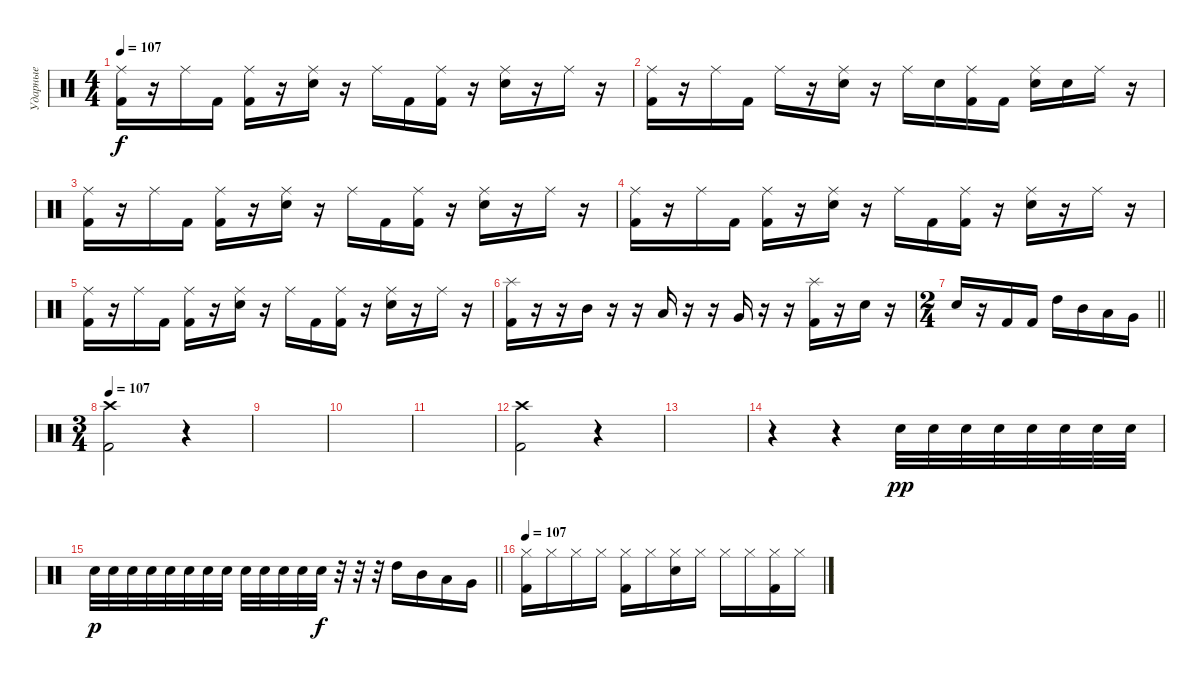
\track ("Ударные" "Ударные") {instrument percussion}
\staff {score}
\articulation defaults
\ts (4 4)
\tempo 107
\clef neutral
\ks c
("Kick (hit) 2" "Ride (middle)").16{dy f} r.16 "Ride (middle)".16 "Kick (hit) 2".16 ("Kick (hit) 2" "Ride (middle)").16 r.16 ("Electric Snare (hit)" "Ride (middle)").16 r.16 "Ride (middle)".16 "Kick (hit) 2".16 ("Kick (hit) 2" "Ride (middle)").16 r.16 ("Electric Snare (hit)" "Ride (middle)").16 r.16 "Ride (middle)".16 r.16 |
("Kick (hit) 2" "Ride (middle)").16 r.16 "Ride (middle)".16 "Kick (hit) 2".16 "Ride (middle)".16 r.16 ("Electric Snare (hit)" "Ride (middle)").16 r.16 "Ride (middle)".16 "Electric Snare (hit)".16 ("Kick (hit) 2" "Ride (middle)").16 "Kick (hit) 2".16 ("Electric Snare (hit)" "Ride (middle)").16 "Electric Snare (hit)".16 "Ride (middle)".16 r.16 |
("Kick (hit) 2" "Ride (middle)").16 r.16 "Ride (middle)".16 "Kick (hit) 2".16 ("Kick (hit) 2" "Ride (middle)").16 r.16 ("Electric Snare (hit)" "Ride (middle)").16 r.16 "Ride (middle)".16 "Kick (hit) 2".16 ("Kick (hit) 2" "Ride (middle)").16 r.16 ("Electric Snare (hit)" "Ride (middle)").16 r.16 "Ride (middle)".16 r.16 |
("Kick (hit) 2" "Ride (middle)").16 r.16 "Ride (middle)".16 "Kick (hit) 2".16 ("Kick (hit) 2" "Ride (middle)").16 r.16 ("Electric Snare (hit)" "Ride (middle)").16 r.16 "Ride (middle)".16 "Kick (hit) 2".16 ("Kick (hit) 2" "Ride (middle)").16 r.16 ("Electric Snare (hit)" "Ride (middle)").16 r.16 "Ride (middle)".16 r.16 |
("Kick (hit) 2" "Ride (middle)").16 r.16 "Ride (middle)".16 "Kick (hit) 2".16 ("Kick (hit) 2" "Ride (middle)").16 r.16 ("Electric Snare (hit)" "Ride (middle)").16 r.16 "Ride (middle)".16 "Kick (hit) 2".16 ("Kick (hit) 2" "Ride (middle)").16 r.16 ("Electric Snare (hit)" "Ride (middle)").16 r.16 "Ride (middle)".16 r.16 |
("Kick (hit) 2" "Splash (hit)").16 r.16 r.16 "Mid Tom (hit)".16 r.16 r.16 "Low Tom (hit)".16 r.16 r.16 "Very Low Tom (hit)".16 r.16 r.16 ("Kick (hit) 2" "Splash (hit)").16 r.16 "Electric Snare (hit)".16 r.16 |
\ts (2 4)
\barLineRight lightlight "Electric Snare (hit)".16
r.16 "Kick (hit) 2".16 "Kick (hit) 2".16 "High Tom (hit)".16 "Mid Tom (hit)".16 "Low Tom (hit)".16 "Very Low Tom (hit)".16 |
\ts (3 4)
\section ("" "")
\tempo 107
("Kick (hit) 2" "Crash high (hit)").2 r.4 |
|
|
|
("Kick (hit) 2" "Crash high (hit)").2 r.4 |
|
r.4 r.4 "Electric Snare (hit)".32{dy pp} "Electric Snare (hit)".32 "Electric Snare (hit)".32 "Electric Snare (hit)".32 "Electric Snare (hit)".32 "Electric Snare (hit)".32 "Electric Snare (hit)".32 "Electric Snare (hit)".32 |
\barLineRight lightlight "Electric Snare (hit)".32{dy p} "Electric Snare (hit)".32 "Electric Snare (hit)".32 "Electric Snare (hit)".32 "Electric Snare (hit)".32 "Electric Snare (hit)".32 "Electric Snare (hit)".32 "Electric Snare (hit)".32 "Electric Snare (hit)".32 "Electric Snare (hit)".32 "Electric Snare (hit)".32 "Electric Snare (hit)".32 "Electric Snare (hit)".32{dy f}
r.32 r.32 r.32 "High Tom (hit)".16 "Mid Tom (hit)".16 "Low Tom (hit)".16 "Very Low Tom (hit)".16 |
\section ("" "")
\tempo 107
("Kick (hit) 2" "Hi-Hat (closed)").16 "Hi-Hat (closed)".16 "Hi-Hat (closed)".16 "Hi-Hat (closed)".16 ("Kick (hit) 2" "Hi-Hat (closed)").16 "Hi-Hat (closed)".16 ("Electric Snare (hit)" "Hi-Hat (closed)").16 "Hi-Hat (closed)".16 "Hi-Hat (closed)".16 "Hi-Hat (closed)".16 ("Kick (hit) 2" "Hi-Hat (closed)").16 "Hi-Hat (closed)".16
